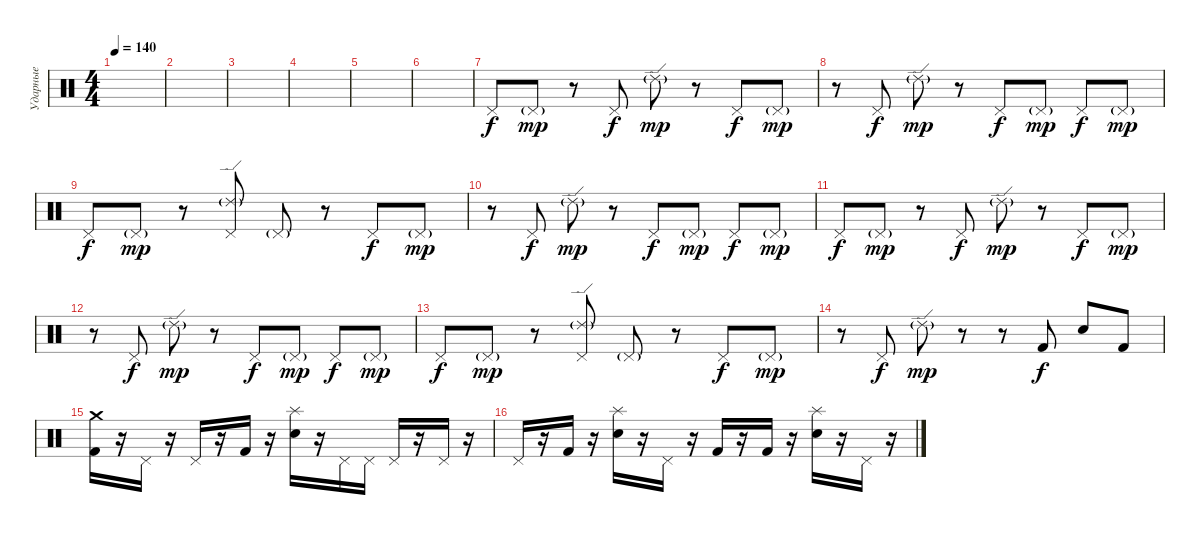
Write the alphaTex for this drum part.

\track ("Ударные" "Ударные") {instrument percussion}
\staff {score}
\articulation defaults
\ts (4 4)
\tempo 140
\clef neutral
\ks c
|
|
|
|
|
|
"Pedal Hi-Hat (hit)".8 "Pedal Hi-Hat (hit)"{g}.8{dy mp} r.8 "Pedal Hi-Hat (hit)".8{dy f} "Ride (edge) 2"{g}.8{dy mp} r.8 "Pedal Hi-Hat (hit)".8{dy f} "Pedal Hi-Hat (hit)"{g}.8{dy mp} |
r.8 "Pedal Hi-Hat (hit)".8{dy f} "Ride (edge) 2"{g}.8{dy mp} r.8 "Pedal Hi-Hat (hit)".8{dy f} "Pedal Hi-Hat (hit)"{g}.8{dy mp} "Pedal Hi-Hat (hit)".8{dy f} "Pedal Hi-Hat (hit)"{g}.8{dy mp} |
"Pedal Hi-Hat (hit)".8{dy f} "Pedal Hi-Hat (hit)"{g}.8{dy mp} r.8 ("Ride (edge) 2"{g} "Pedal Hi-Hat (hit)").8 "Pedal Hi-Hat (hit)"{g}.8 r.8 "Pedal Hi-Hat (hit)".8{dy f} "Pedal Hi-Hat (hit)"{g}.8{dy mp} |
r.8 "Pedal Hi-Hat (hit)".8{dy f} "Ride (edge) 2"{g}.8{dy mp} r.8 "Pedal Hi-Hat (hit)".8{dy f} "Pedal Hi-Hat (hit)"{g}.8{dy mp} "Pedal Hi-Hat (hit)".8{dy f} "Pedal Hi-Hat (hit)"{g}.8{dy mp} |
"Pedal Hi-Hat (hit)".8{dy f} "Pedal Hi-Hat (hit)"{g}.8{dy mp} r.8 "Pedal Hi-Hat (hit)".8{dy f} "Ride (edge) 2"{g}.8{dy mp} r.8 "Pedal Hi-Hat (hit)".8{dy f} "Pedal Hi-Hat (hit)"{g}.8{dy mp} |
r.8 "Pedal Hi-Hat (hit)".8{dy f} "Ride (edge) 2"{g}.8{dy mp} r.8 "Pedal Hi-Hat (hit)".8{dy f} "Pedal Hi-Hat (hit)"{g}.8{dy mp} "Pedal Hi-Hat (hit)".8{dy f} "Pedal Hi-Hat (hit)"{g}.8{dy mp} |
"Pedal Hi-Hat (hit)".8{dy f} "Pedal Hi-Hat (hit)"{g}.8{dy mp} r.8 ("Ride (edge) 2"{g} "Pedal Hi-Hat (hit)").8 "Pedal Hi-Hat (hit)"{g}.8 r.8 "Pedal Hi-Hat (hit)".8{dy f} "Pedal Hi-Hat (hit)"{g}.8{dy mp} |
r.8 "Pedal Hi-Hat (hit)".8{dy f} "Ride (edge) 2"{g}.8{dy mp} r.8 r.8 "Kick (hit) 2".8{dy f} "Snare (hit) 2".8 "Kick (hit) 2".8 |
("Crash medium (hit)" "Kick (hit) 2").16 r.16 "Pedal Hi-Hat (hit)".16 r.16 "Pedal Hi-Hat (hit)".16 r.16 "Kick (hit) 2".16 r.16 ("Splash (hit)" "Snare (hit) 2").16 r.16 "Pedal Hi-Hat (hit)".16 "Pedal Hi-Hat (hit)".16 "Pedal Hi-Hat (hit)".16 r.16 "Pedal Hi-Hat (hit)".16 r.16 |
"Pedal Hi-Hat (hit)".16 r.16 "Kick (hit) 2".16 r.16 ("Splash (hit)" "Snare (hit) 2").16 r.16 "Pedal Hi-Hat (hit)".16 r.16 "Kick (hit) 2".16 r.16 "Kick (hit) 2".16 r.16 ("Splash (hit)" "Snare (hit) 2").16 r.16 "Pedal Hi-Hat (hit)".16 r.16
